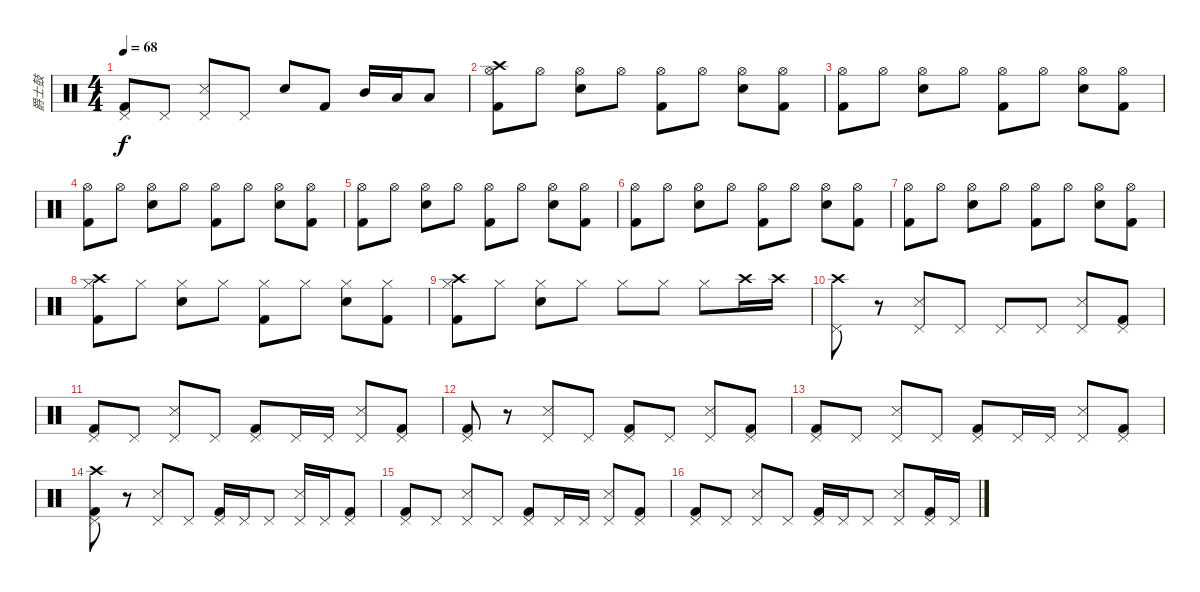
\track ("爵士鼓" "爵士鼓") {instrument percussion}
\staff {score}
\articulation defaults
\ts (4 4)
\tempo 68
\clef neutral
\ks c
("Kick (hit) 2" "Pedal Hi-Hat (hit)").8{dy f} "Pedal Hi-Hat (hit)".8 ("Snare (side stick) 3" "Pedal Hi-Hat (hit)").8 "Pedal Hi-Hat (hit)".8 "Snare (hit) 2".8 "Kick (hit) 2".8 "Mid Tom (hit)".16 "Low Tom (hit)".16 "Low Floor Tom (hit)".8 |
("Crash high (hit)" "Kick (hit) 2" "Hi-Hat (open)").8 "Hi-Hat (open)".8 ("Snare (hit) 2" "Hi-Hat (open)").8 "Hi-Hat (open)".8 ("Kick (hit) 2" "Hi-Hat (open)").8 "Hi-Hat (open)".8 ("Snare (hit) 2" "Hi-Hat (open)").8 ("Kick (hit) 2" "Hi-Hat (open)").8 |
("Kick (hit) 2" "Hi-Hat (open)").8 "Hi-Hat (open)".8 ("Snare (hit) 2" "Hi-Hat (open)").8 "Hi-Hat (open)".8 ("Kick (hit) 2" "Hi-Hat (open)").8 "Hi-Hat (open)".8 ("Snare (hit) 2" "Hi-Hat (open)").8 ("Kick (hit) 2" "Hi-Hat (open)").8 |
("Kick (hit) 2" "Hi-Hat (open)").8 "Hi-Hat (open)".8 ("Snare (hit) 2" "Hi-Hat (open)").8 "Hi-Hat (open)".8 ("Kick (hit) 2" "Hi-Hat (open)").8 "Hi-Hat (open)".8 ("Snare (hit) 2" "Hi-Hat (open)").8 ("Kick (hit) 2" "Hi-Hat (open)").8 |
("Kick (hit) 2" "Hi-Hat (open)").8 "Hi-Hat (open)".8 ("Snare (hit) 2" "Hi-Hat (open)").8 "Hi-Hat (open)".8 ("Kick (hit) 2" "Hi-Hat (open)").8 "Hi-Hat (open)".8 ("Snare (hit) 2" "Hi-Hat (open)").8 ("Kick (hit) 2" "Hi-Hat (open)").8 |
("Kick (hit) 2" "Hi-Hat (open)").8 "Hi-Hat (open)".8 ("Snare (hit) 2" "Hi-Hat (open)").8 "Hi-Hat (open)".8 ("Kick (hit) 2" "Hi-Hat (open)").8 "Hi-Hat (open)".8 ("Snare (hit) 2" "Hi-Hat (open)").8 ("Kick (hit) 2" "Hi-Hat (open)").8 |
("Kick (hit) 2" "Hi-Hat (open)").8 "Hi-Hat (open)".8 ("Snare (hit) 2" "Hi-Hat (open)").8 "Hi-Hat (open)".8 ("Kick (hit) 2" "Hi-Hat (open)").8 "Hi-Hat (open)".8 ("Snare (hit) 2" "Hi-Hat (open)").8 ("Kick (hit) 2" "Hi-Hat (open)").8 |
("Crash high (hit)" "Kick (hit) 2" "Hi-Hat (closed)").8 "Hi-Hat (closed)".8 ("Snare (hit) 2" "Hi-Hat (closed)").8 "Hi-Hat (closed)".8 ("Kick (hit) 2" "Hi-Hat (closed)").8 "Hi-Hat (closed)".8 ("Snare (hit) 2" "Hi-Hat (closed)").8 ("Kick (hit) 2" "Hi-Hat (closed)").8 |
("Crash high (hit)" "Kick (hit) 2" "Hi-Hat (closed)").8 "Hi-Hat (closed)".8 ("Snare (hit) 2" "Hi-Hat (closed)").8 "Hi-Hat (closed)".8 "Hi-Hat (closed)".8 "Hi-Hat (closed)".8 "Hi-Hat (closed)".8 "Crash high (hit)".16 "Crash high (hit)".16 |
("Crash high (hit)" "Pedal Hi-Hat (hit)").8 r.8 ("Snare (side stick) 3" "Pedal Hi-Hat (hit)").8 "Pedal Hi-Hat (hit)".8 "Pedal Hi-Hat (hit)".8 "Pedal Hi-Hat (hit)".8 ("Snare (side stick) 3" "Pedal Hi-Hat (hit)").8 ("Kick (hit) 2" "Pedal Hi-Hat (hit)").8 |
("Kick (hit) 2" "Pedal Hi-Hat (hit)").8 "Pedal Hi-Hat (hit)".8 ("Snare (side stick) 3" "Pedal Hi-Hat (hit)").8 "Pedal Hi-Hat (hit)".8 ("Kick (hit) 2" "Pedal Hi-Hat (hit)").8 "Pedal Hi-Hat (hit)".16 "Pedal Hi-Hat (hit)".16 ("Snare (side stick) 3" "Pedal Hi-Hat (hit)").8 ("Kick (hit) 2" "Pedal Hi-Hat (hit)").8 |
("Kick (hit) 2" "Pedal Hi-Hat (hit)").8 r.8 ("Snare (side stick) 3" "Pedal Hi-Hat (hit)").8 "Pedal Hi-Hat (hit)".8 ("Kick (hit) 2" "Pedal Hi-Hat (hit)").8 "Pedal Hi-Hat (hit)".8 ("Snare (side stick) 3" "Pedal Hi-Hat (hit)").8 ("Kick (hit) 2" "Pedal Hi-Hat (hit)").8 |
("Kick (hit) 2" "Pedal Hi-Hat (hit)").8 "Pedal Hi-Hat (hit)".8 ("Snare (side stick) 3" "Pedal Hi-Hat (hit)").8 "Pedal Hi-Hat (hit)".8 ("Kick (hit) 2" "Pedal Hi-Hat (hit)").8 "Pedal Hi-Hat (hit)".16 "Pedal Hi-Hat (hit)".16 ("Snare (side stick) 3" "Pedal Hi-Hat (hit)").8 ("Kick (hit) 2" "Pedal Hi-Hat (hit)").8 |
("Crash high (hit)" "Kick (hit) 2" "Pedal Hi-Hat (hit)").8 r.8 ("Snare (side stick) 3" "Pedal Hi-Hat (hit)").8 "Pedal Hi-Hat (hit)".8 ("Kick (hit) 2" "Pedal Hi-Hat (hit)").16 "Pedal Hi-Hat (hit)".16 "Pedal Hi-Hat (hit)".8 ("Snare (side stick) 3" "Pedal Hi-Hat (hit)").16 "Pedal Hi-Hat (hit)".16 ("Kick (hit) 2" "Pedal Hi-Hat (hit)").8 |
("Kick (hit) 2" "Pedal Hi-Hat (hit)").8 "Pedal Hi-Hat (hit)".8 ("Snare (side stick) 3" "Pedal Hi-Hat (hit)").8 "Pedal Hi-Hat (hit)".8 ("Kick (hit) 2" "Pedal Hi-Hat (hit)").8 "Pedal Hi-Hat (hit)".16 "Pedal Hi-Hat (hit)".16 ("Snare (side stick) 3" "Pedal Hi-Hat (hit)").8 ("Kick (hit) 2" "Pedal Hi-Hat (hit)").8 |
("Kick (hit) 2" "Pedal Hi-Hat (hit)").8 "Pedal Hi-Hat (hit)".8 ("Snare (side stick) 3" "Pedal Hi-Hat (hit)").8 "Pedal Hi-Hat (hit)".8 ("Kick (hit) 2" "Pedal Hi-Hat (hit)").16 "Pedal Hi-Hat (hit)".16 "Pedal Hi-Hat (hit)".8 ("Snare (side stick) 3" "Pedal Hi-Hat (hit)").8 ("Kick (hit) 2" "Pedal Hi-Hat (hit)").16 "Pedal Hi-Hat (hit)".16
